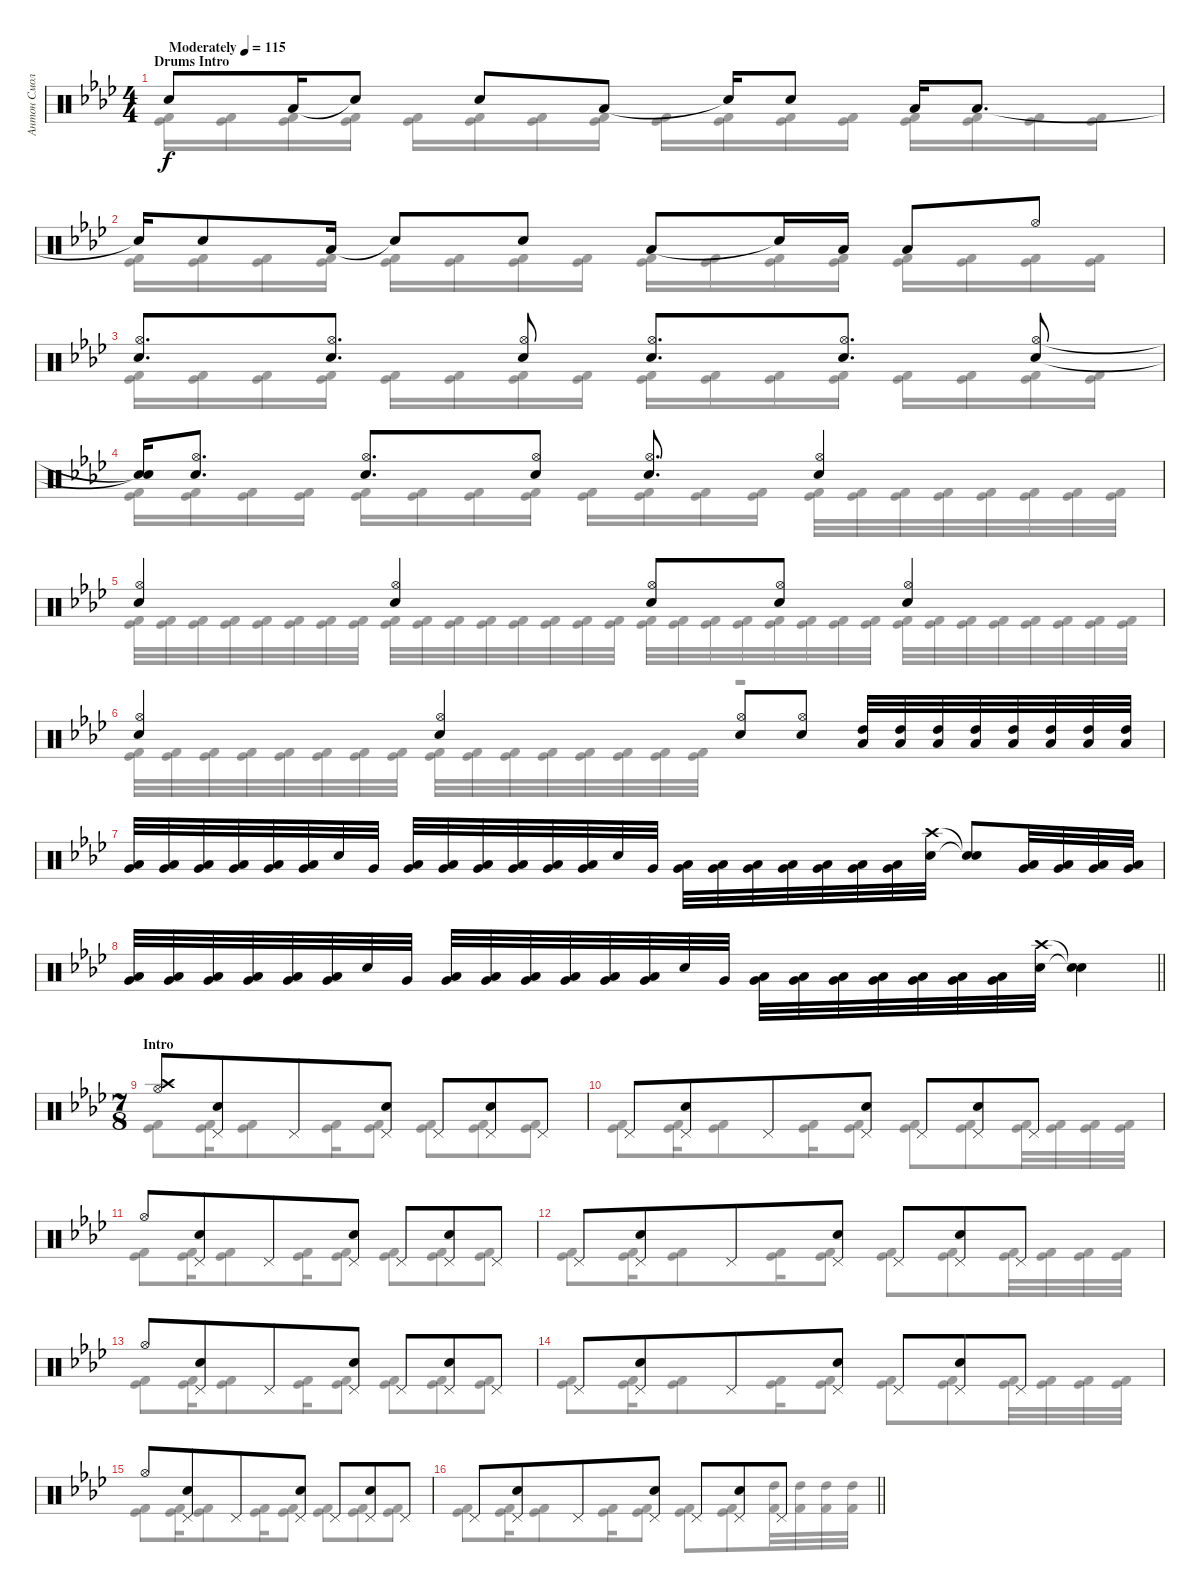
\track ("Антон Смольянин" "Антон Смол") {instrument percussion}
\staff {score}
\articulation defaults
\voice
\ts (4 4)
\section ("" "Drums Intro")
\tempo (115 "Moderately")
\clef neutral
\ks ab "Electric Snare (hit)".8{dy f} "Low Tom (hit)".16 "Snare (hit)"{t}.8 "Electric Snare (hit)".8 "Low Tom (hit)".8 "Snare (hit)"{t}.16 "Electric Snare (hit)".8 "Low Tom (hit)".16 "Low Tom (hit)".8{d}
|
"Snare (hit)"{t}.16 "Electric Snare (hit)".8 "Low Tom (hit)".16 "Snare (hit)"{t}.8 "Electric Snare (hit)".8 "Low Tom (hit)".8 "Snare (hit)"{t}.16 "Low Tom (hit)".16 "Low Tom (hit)".8 "Hi-Hat (open)".8 |
("Electric Snare (hit)" "Hi-Hat (open)").8{d} ("Electric Snare (hit)" "Hi-Hat (open)").8{d} ("Electric Snare (hit)" "Hi-Hat (open)").8 ("Electric Snare (hit)" "Hi-Hat (open)").8{d} ("Electric Snare (hit)" "Hi-Hat (open)").8{d} ("Electric Snare (hit)" "Hi-Hat (open)").8 |
("Snare (hit)"{t} "Snare (hit)"{t}).16 ("Electric Snare (hit)" "Hi-Hat (open)").8{d} ("Electric Snare (hit)" "Hi-Hat (open)").8{d} ("Electric Snare (hit)" "Hi-Hat (open)").8 ("Electric Snare (hit)" "Hi-Hat (open)").8{d} ("Electric Snare (hit)" "Hi-Hat (open)").4 |
("Electric Snare (hit)" "Hi-Hat (open)").4 ("Electric Snare (hit)" "Hi-Hat (open)").4 ("Electric Snare (hit)" "Hi-Hat (open)").8 ("Electric Snare (hit)" "Hi-Hat (open)").8 ("Electric Snare (hit)" "Hi-Hat (open)").4 |
("Electric Snare (hit)" "Hi-Hat (open)").4 ("Electric Snare (hit)" "Hi-Hat (open)").4 ("Electric Snare (hit)" "Hi-Hat (open)").8 ("Electric Snare (hit)" "Hi-Hat (open)").8 ("Low Tom (hit)" "High Tom (hit)").32 ("Low Tom (hit)" "High Tom (hit)").32 ("High Tom (hit)" "Low Tom (hit)").32 ("High Tom (hit)" "Low Tom (hit)").32 ("Low Tom (hit)" "High Tom (hit)").32 ("Low Tom (hit)" "High Tom (hit)").32 ("Low Tom (hit)" "High Tom (hit)").32 ("Low Tom (hit)" "High Tom (hit)").32 |
("Very Low Tom (hit)" "Low Tom (hit)").32 ("Very Low Tom (hit)" "Low Tom (hit)").32 ("Very Low Tom (hit)" "Low Tom (hit)").32 ("Very Low Tom (hit)" "Low Tom (hit)").32 ("Very Low Tom (hit)" "Low Tom (hit)").32 ("Very Low Tom (hit)" "Low Tom (hit)").32 "Electric Snare (hit)".32 "Very Low Tom (hit)".32 ("Very Low Tom (hit)" "Low Tom (hit)").32 ("Low Tom (hit)" "Very Low Tom (hit)").32 ("Low Tom (hit)" "Very Low Tom (hit)").32 ("Very Low Tom (hit)" "Low Tom (hit)").32 ("Very Low Tom (hit)" "Low Tom (hit)").32 ("Very Low Tom (hit)" "Low Tom (hit)").32 "Electric Snare (hit)".32 "Very Low Tom (hit)".32 ("Very Low Tom (hit)" "Low Tom (hit)").32 ("Very Low Tom (hit)" "Low Tom (hit)").32 ("Very Low Tom (hit)" "Low Tom (hit)").32 ("Very Low Tom (hit)" "Low Tom (hit)").32 ("Very Low Tom (hit)" "Low Tom (hit)").32 ("Very Low Tom (hit)" "Low Tom (hit)").32 ("Very Low Tom (hit)" "Low Tom (hit)").32 ("Electric Snare (hit)" "Crash high (hit)").32 ("Snare (hit)"{t} "Snare (hit)"{t}).8 ("Very Low Tom (hit)" "Low Tom (hit)").32 ("Very Low Tom (hit)" "Low Tom (hit)").32 ("Very Low Tom (hit)" "Low Tom (hit)").32 ("Very Low Tom (hit)" "Low Tom (hit)").32 |
\barLineRight lightlight
("Very Low Tom (hit)" "Low Tom (hit)").32 ("Very Low Tom (hit)" "Low Tom (hit)").32 ("Very Low Tom (hit)" "Low Tom (hit)").32 ("Very Low Tom (hit)" "Low Tom (hit)").32 ("Very Low Tom (hit)" "Low Tom (hit)").32 ("Very Low Tom (hit)" "Low Tom (hit)").32 "Electric Snare (hit)".32 "Very Low Tom (hit)".32 ("Very Low Tom (hit)" "Low Tom (hit)").32 ("Low Tom (hit)" "Very Low Tom (hit)").32 ("Low Tom (hit)" "Very Low Tom (hit)").32 ("Very Low Tom (hit)" "Low Tom (hit)").32 ("Very Low Tom (hit)" "Low Tom (hit)").32 ("Very Low Tom (hit)" "Low Tom (hit)").32 "Electric Snare (hit)".32 "Very Low Tom (hit)".32 ("Very Low Tom (hit)" "Low Tom (hit)").32 ("Very Low Tom (hit)" "Low Tom (hit)").32 ("Very Low Tom (hit)" "Low Tom (hit)").32 ("Very Low Tom (hit)" "Low Tom (hit)").32 ("Very Low Tom (hit)" "Low Tom (hit)").32 ("Very Low Tom (hit)" "Low Tom (hit)").32 ("Very Low Tom (hit)" "Low Tom (hit)").32 ("Electric Snare (hit)" "Crash high (hit)").32 ("Snare (hit)"{t} "Snare (hit)"{t}).4 |
\ts (7 8)
\section ("" "Intro")
("Hi-Hat (open)" "Crash high (hit)").8 ("Electric Snare (hit)" "Pedal Hi-Hat (hit)").8 "Pedal Hi-Hat (hit)".8 ("Electric Snare (hit)" "Pedal Hi-Hat (hit)").8 "Pedal Hi-Hat (hit)".8 ("Electric Snare (hit)" "Pedal Hi-Hat (hit)").8 "Pedal Hi-Hat (hit)".8 |
"Pedal Hi-Hat (hit)".8 ("Electric Snare (hit)" "Pedal Hi-Hat (hit)").8 "Pedal Hi-Hat (hit)".8 ("Electric Snare (hit)" "Pedal Hi-Hat (hit)").8 "Pedal Hi-Hat (hit)".8 ("Electric Snare (hit)" "Pedal Hi-Hat (hit)").8 "Pedal Hi-Hat (hit)".8 |
"Hi-Hat (open)".8 ("Electric Snare (hit)" "Pedal Hi-Hat (hit)").8 "Pedal Hi-Hat (hit)".8 ("Electric Snare (hit)" "Pedal Hi-Hat (hit)").8 "Pedal Hi-Hat (hit)".8 ("Electric Snare (hit)" "Pedal Hi-Hat (hit)").8 "Pedal Hi-Hat (hit)".8 |
"Pedal Hi-Hat (hit)".8 ("Electric Snare (hit)" "Pedal Hi-Hat (hit)").8 "Pedal Hi-Hat (hit)".8 ("Electric Snare (hit)" "Pedal Hi-Hat (hit)").8 "Pedal Hi-Hat (hit)".8 ("Electric Snare (hit)" "Pedal Hi-Hat (hit)").8 "Pedal Hi-Hat (hit)".8 |
"Hi-Hat (open)".8 ("Electric Snare (hit)" "Pedal Hi-Hat (hit)").8 "Pedal Hi-Hat (hit)".8 ("Electric Snare (hit)" "Pedal Hi-Hat (hit)").8 "Pedal Hi-Hat (hit)".8 ("Electric Snare (hit)" "Pedal Hi-Hat (hit)").8 "Pedal Hi-Hat (hit)".8 |
"Pedal Hi-Hat (hit)".8 ("Electric Snare (hit)" "Pedal Hi-Hat (hit)").8 "Pedal Hi-Hat (hit)".8 ("Electric Snare (hit)" "Pedal Hi-Hat (hit)").8 "Pedal Hi-Hat (hit)".8 ("Electric Snare (hit)" "Pedal Hi-Hat (hit)").8 "Pedal Hi-Hat (hit)".8 |
"Hi-Hat (open)".8 ("Electric Snare (hit)" "Pedal Hi-Hat (hit)").8 "Pedal Hi-Hat (hit)".8 ("Electric Snare (hit)" "Pedal Hi-Hat (hit)").8 "Pedal Hi-Hat (hit)".8 ("Electric Snare (hit)" "Pedal Hi-Hat (hit)").8 "Pedal Hi-Hat (hit)".8 |
\barLineRight lightlight "Pedal Hi-Hat (hit)".8
("Electric Snare (hit)" "Pedal Hi-Hat (hit)").8 "Pedal Hi-Hat (hit)".8 ("Electric Snare (hit)" "Pedal Hi-Hat (hit)").8 "Pedal Hi-Hat (hit)".8 ("Electric Snare (hit)" "Pedal Hi-Hat (hit)").8 "Pedal Hi-Hat (hit)".8
\voice
\clef neutral
\ottava regular
\simile none
\ks ab
("Kick (hit) 2" "Kick (hit)").16{dy f} ("Kick (hit) 2" "Kick (hit)").16 ("Kick (hit) 2" "Kick (hit)").16 ("Kick (hit) 2" "Kick (hit)").16 ("Kick (hit) 2" "Kick (hit)").16 ("Kick (hit) 2" "Kick (hit)").16 ("Kick (hit) 2" "Kick (hit)").16 ("Kick (hit) 2" "Kick (hit)").16 ("Kick (hit) 2" "Kick (hit)").16 ("Kick (hit) 2" "Kick (hit)").16 ("Kick (hit) 2" "Kick (hit)").16 ("Kick (hit) 2" "Kick (hit)").16 ("Kick (hit) 2" "Kick (hit)").16 ("Kick (hit) 2" "Kick (hit)").16 ("Kick (hit) 2" "Kick (hit)").16 ("Kick (hit) 2" "Kick (hit)").16 |
("Kick (hit) 2" "Kick (hit)").16 ("Kick (hit) 2" "Kick (hit)").16 ("Kick (hit) 2" "Kick (hit)").16 ("Kick (hit) 2" "Kick (hit)").16 ("Kick (hit) 2" "Kick (hit)").16 ("Kick (hit) 2" "Kick (hit)").16 ("Kick (hit) 2" "Kick (hit)").16 ("Kick (hit) 2" "Kick (hit)").16 ("Kick (hit) 2" "Kick (hit)").16 ("Kick (hit) 2" "Kick (hit)").16 ("Kick (hit) 2" "Kick (hit)").16 ("Kick (hit) 2" "Kick (hit)").16 ("Kick (hit) 2" "Kick (hit)").16 ("Kick (hit) 2" "Kick (hit)").16 ("Kick (hit) 2" "Kick (hit)").16 ("Kick (hit) 2" "Kick (hit)").16 |
("Kick (hit) 2" "Kick (hit)").16 ("Kick (hit) 2" "Kick (hit)").16 ("Kick (hit) 2" "Kick (hit)").16 ("Kick (hit) 2" "Kick (hit)").16 ("Kick (hit) 2" "Kick (hit)").16 ("Kick (hit) 2" "Kick (hit)").16 ("Kick (hit) 2" "Kick (hit)").16 ("Kick (hit) 2" "Kick (hit)").16 ("Kick (hit) 2" "Kick (hit)").16 ("Kick (hit) 2" "Kick (hit)").16 ("Kick (hit) 2" "Kick (hit)").16 ("Kick (hit) 2" "Kick (hit)").16 ("Kick (hit) 2" "Kick (hit)").16 ("Kick (hit) 2" "Kick (hit)").16 ("Kick (hit) 2" "Kick (hit)").16 ("Kick (hit) 2" "Kick (hit)").16 |
("Kick (hit) 2" "Kick (hit)").16 ("Kick (hit) 2" "Kick (hit)").16 ("Kick (hit) 2" "Kick (hit)").16 ("Kick (hit) 2" "Kick (hit)").16 ("Kick (hit) 2" "Kick (hit)").16 ("Kick (hit) 2" "Kick (hit)").16 ("Kick (hit) 2" "Kick (hit)").16 ("Kick (hit) 2" "Kick (hit)").16 ("Kick (hit) 2" "Kick (hit)").16 ("Kick (hit) 2" "Kick (hit)").16 ("Kick (hit) 2" "Kick (hit)").16 ("Kick (hit) 2" "Kick (hit)").16 ("Kick (hit) 2" "Kick (hit)").32 ("Kick (hit) 2" "Kick (hit)").32 ("Kick (hit) 2" "Kick (hit)").32 ("Kick (hit) 2" "Kick (hit)").32 ("Kick (hit) 2" "Kick (hit)").32 ("Kick (hit) 2" "Kick (hit)").32 ("Kick (hit) 2" "Kick (hit)").32 ("Kick (hit) 2" "Kick (hit)").32 |
("Kick (hit) 2" "Kick (hit)").32 ("Kick (hit) 2" "Kick (hit)").32 ("Kick (hit) 2" "Kick (hit)").32 ("Kick (hit) 2" "Kick (hit)").32 ("Kick (hit) 2" "Kick (hit)").32 ("Kick (hit) 2" "Kick (hit)").32 ("Kick (hit) 2" "Kick (hit)").32 ("Kick (hit) 2" "Kick (hit)").32 ("Kick (hit) 2" "Kick (hit)").32 ("Kick (hit) 2" "Kick (hit)").32 ("Kick (hit) 2" "Kick (hit)").32 ("Kick (hit) 2" "Kick (hit)").32 ("Kick (hit) 2" "Kick (hit)").32 ("Kick (hit) 2" "Kick (hit)").32 ("Kick (hit) 2" "Kick (hit)").32 ("Kick (hit) 2" "Kick (hit)").32 ("Kick (hit) 2" "Kick (hit)").32 ("Kick (hit) 2" "Kick (hit)").32 ("Kick (hit) 2" "Kick (hit)").32 ("Kick (hit) 2" "Kick (hit)").32 ("Kick (hit) 2" "Kick (hit)").32 ("Kick (hit) 2" "Kick (hit)").32 ("Kick (hit) 2" "Kick (hit)").32 ("Kick (hit) 2" "Kick (hit)").32 ("Kick (hit) 2" "Kick (hit)").32 ("Kick (hit) 2" "Kick (hit)").32 ("Kick (hit) 2" "Kick (hit)").32 ("Kick (hit) 2" "Kick (hit)").32 ("Kick (hit) 2" "Kick (hit)").32 ("Kick (hit) 2" "Kick (hit)").32 ("Kick (hit) 2" "Kick (hit)").32 ("Kick (hit) 2" "Kick (hit)").32 |
("Kick (hit) 2" "Kick (hit)").32 ("Kick (hit) 2" "Kick (hit)").32 ("Kick (hit) 2" "Kick (hit)").32 ("Kick (hit) 2" "Kick (hit)").32 ("Kick (hit) 2" "Kick (hit)").32 ("Kick (hit) 2" "Kick (hit)").32 ("Kick (hit) 2" "Kick (hit)").32 ("Kick (hit) 2" "Kick (hit)").32 ("Kick (hit) 2" "Kick (hit)").32 ("Kick (hit) 2" "Kick (hit)").32 ("Kick (hit) 2" "Kick (hit)").32 ("Kick (hit) 2" "Kick (hit)").32 ("Kick (hit) 2" "Kick (hit)").32 ("Kick (hit) 2" "Kick (hit)").32 ("Kick (hit) 2" "Kick (hit)").32 ("Kick (hit) 2" "Kick (hit)").32 r.2 |
|
\barLineRight lightlight
|
("Kick (hit) 2" "Kick (hit)").8 ("Kick (hit) 2" "Kick (hit)").16 ("Kick (hit) 2" "Kick (hit)").8 ("Kick (hit) 2" "Kick (hit)").16 ("Kick (hit) 2" "Kick (hit)").8 ("Kick (hit) 2" "Kick (hit)").8 ("Kick (hit) 2" "Kick (hit)").8 ("Kick (hit) 2" "Kick (hit)").8 |
("Kick (hit) 2" "Kick (hit)").8 ("Kick (hit) 2" "Kick (hit)").16 ("Kick (hit) 2" "Kick (hit)").8 ("Kick (hit) 2" "Kick (hit)").16 ("Kick (hit) 2" "Kick (hit)").8 ("Kick (hit) 2" "Kick (hit)").8 ("Kick (hit) 2" "Kick (hit)").8 ("Kick (hit) 2" "Kick (hit)").32 ("Kick (hit) 2" "Kick (hit)").32 ("Kick (hit) 2" "Kick (hit)").32 ("Kick (hit) 2" "Kick (hit)").32 |
("Kick (hit) 2" "Kick (hit)").8 ("Kick (hit) 2" "Kick (hit)").16 ("Kick (hit) 2" "Kick (hit)").8 ("Kick (hit) 2" "Kick (hit)").16 ("Kick (hit) 2" "Kick (hit)").8 ("Kick (hit) 2" "Kick (hit)").8 ("Kick (hit) 2" "Kick (hit)").8 ("Kick (hit) 2" "Kick (hit)").8 |
("Kick (hit) 2" "Kick (hit)").8 ("Kick (hit) 2" "Kick (hit)").16 ("Kick (hit) 2" "Kick (hit)").8 ("Kick (hit) 2" "Kick (hit)").16 ("Kick (hit) 2" "Kick (hit)").8 ("Kick (hit) 2" "Kick (hit)").8 ("Kick (hit) 2" "Kick (hit)").8 ("Kick (hit) 2" "Kick (hit)").32 ("Kick (hit) 2" "Kick (hit)").32 ("Kick (hit) 2" "Kick (hit)").32 ("Kick (hit) 2" "Kick (hit)").32 |
("Kick (hit) 2" "Kick (hit)").8 ("Kick (hit) 2" "Kick (hit)").16 ("Kick (hit) 2" "Kick (hit)").8 ("Kick (hit) 2" "Kick (hit)").16 ("Kick (hit) 2" "Kick (hit)").8 ("Kick (hit) 2" "Kick (hit)").8 ("Kick (hit) 2" "Kick (hit)").8 ("Kick (hit) 2" "Kick (hit)").8 |
("Kick (hit) 2" "Kick (hit)").8 ("Kick (hit) 2" "Kick (hit)").16 ("Kick (hit) 2" "Kick (hit)").8 ("Kick (hit) 2" "Kick (hit)").16 ("Kick (hit) 2" "Kick (hit)").8 ("Kick (hit) 2" "Kick (hit)").8 ("Kick (hit) 2" "Kick (hit)").8 ("Kick (hit) 2" "Kick (hit)").32 ("Kick (hit) 2" "Kick (hit)").32 ("Kick (hit) 2" "Kick (hit)").32 ("Kick (hit) 2" "Kick (hit)").32 |
("Kick (hit) 2" "Kick (hit)").8 ("Kick (hit) 2" "Kick (hit)").16 ("Kick (hit) 2" "Kick (hit)").8 ("Kick (hit) 2" "Kick (hit)").16 ("Kick (hit) 2" "Kick (hit)").8 ("Kick (hit) 2" "Kick (hit)").8 ("Kick (hit) 2" "Kick (hit)").8 ("Kick (hit) 2" "Kick (hit)").8 |
\barLineRight lightlight
("Kick (hit) 2" "Kick (hit)").8 ("Kick (hit) 2" "Kick (hit)").16 ("Kick (hit) 2" "Kick (hit)").8 ("Kick (hit) 2" "Kick (hit)").16 ("Kick (hit) 2" "Kick (hit)").8 ("Kick (hit) 2" "Kick (hit)").8 ("Kick (hit) 2" "Kick (hit)").8 ("Kick (hit) 2" "High Tom (hit)").32 ("Kick (hit) 2" "High Tom (hit)").32 ("Kick (hit) 2" "High Tom (hit)").32 ("Kick (hit) 2" "High Tom (hit)").32
